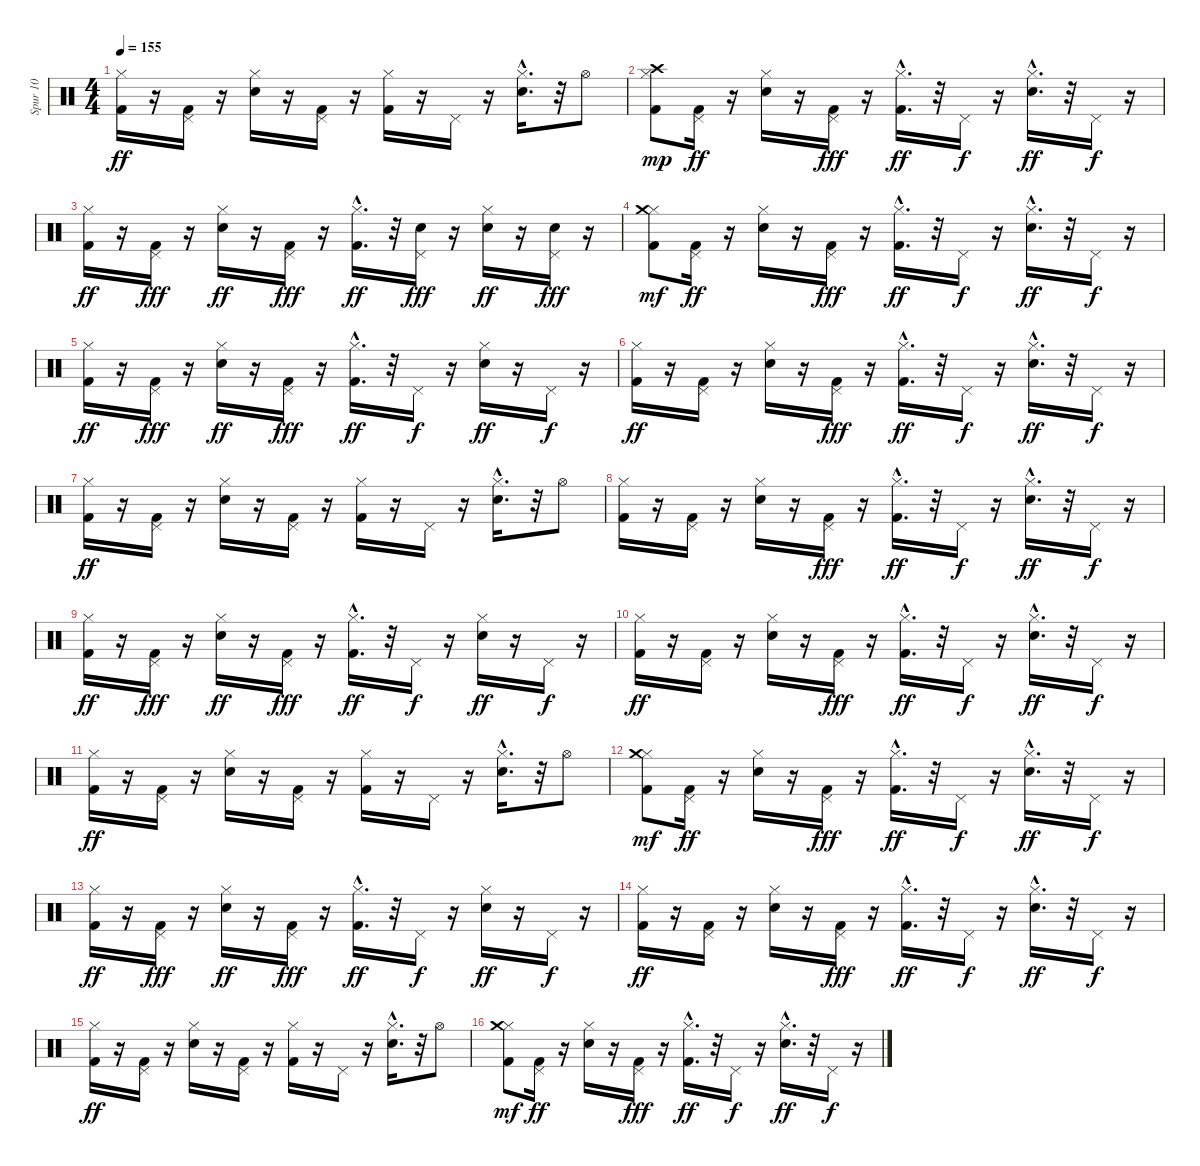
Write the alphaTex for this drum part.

\track ("Spur 10" "Spur 10") {instrument percussion}
\staff {score}
\articulation defaults
\ts (4 4)
\tempo 155
\clef neutral
\ks c
("Kick (hit) 2" "Hi-Hat (closed)").16{dy ff} r.16 ("Kick (hit) 2" "Pedal Hi-Hat (hit)").16 r.16 ("Snare (hit) 2" "Hi-Hat (closed)").16 r.16 ("Kick (hit) 2" "Pedal Hi-Hat (hit)").16 r.16 ("Kick (hit) 2" "Hi-Hat (closed)").16 r.16 "Pedal Hi-Hat (hit)".16 r.16 ("Snare (hit) 2"{hac} "Hi-Hat (closed)").16{d} r.32 "Hi-Hat (open)".8 |
("Kick (hit) 2" "Hi-Hat (closed)" "Crash high (hit)").8{dy mp} ("Kick (hit) 2" "Pedal Hi-Hat (hit)").16{dy ff} r.16 ("Snare (hit) 2" "Hi-Hat (closed)").16 r.16 ("Kick (hit) 2" "Pedal Hi-Hat (hit)").16{dy fff} r.16 ("Kick (hit) 2"{hac} "Hi-Hat (closed)").16{d dy ff} r.32 "Pedal Hi-Hat (hit)".16{dy f} r.16 ("Snare (hit) 2"{hac} "Hi-Hat (closed)").16{d dy ff} r.32 "Pedal Hi-Hat (hit)".16{dy f} r.16 |
("Kick (hit) 2" "Hi-Hat (closed)").16{dy ff} r.16 ("Kick (hit) 2" "Pedal Hi-Hat (hit)").16{dy fff} r.16 ("Snare (hit) 2" "Hi-Hat (closed)").16{dy ff} r.16 ("Kick (hit) 2" "Pedal Hi-Hat (hit)").16{dy fff} r.16 ("Kick (hit) 2"{hac} "Hi-Hat (closed)").16{d dy ff} r.32 ("Pedal Hi-Hat (hit)" "Snare (hit) 2").16{dy fff} r.16 ("Snare (hit) 2" "Hi-Hat (closed)").16{dy ff} r.16 ("Pedal Hi-Hat (hit)" "Snare (hit) 2").16{dy fff} r.16 |
("Kick (hit) 2" "Hi-Hat (closed)" "Crash medium (hit)").8{dy mf} ("Kick (hit) 2" "Pedal Hi-Hat (hit)").16{dy ff} r.16 ("Snare (hit) 2" "Hi-Hat (closed)").16 r.16 ("Kick (hit) 2" "Pedal Hi-Hat (hit)").16{dy fff} r.16 ("Kick (hit) 2"{hac} "Hi-Hat (closed)").16{d dy ff} r.32 "Pedal Hi-Hat (hit)".16{dy f} r.16 ("Snare (hit) 2"{hac} "Hi-Hat (closed)").16{d dy ff} r.32 "Pedal Hi-Hat (hit)".16{dy f} r.16 |
("Kick (hit) 2" "Hi-Hat (closed)").16{dy ff} r.16 ("Kick (hit) 2" "Pedal Hi-Hat (hit)").16{dy fff} r.16 ("Snare (hit) 2" "Hi-Hat (closed)").16{dy ff} r.16 ("Kick (hit) 2" "Pedal Hi-Hat (hit)").16{dy fff} r.16 ("Kick (hit) 2"{hac} "Hi-Hat (closed)").16{d dy ff} r.32 "Pedal Hi-Hat (hit)".16{dy f} r.16 ("Snare (hit) 2" "Hi-Hat (closed)").16{dy ff} r.16 "Pedal Hi-Hat (hit)".16{dy f} r.16 |
("Kick (hit) 2" "Hi-Hat (closed)").16{dy ff} r.16 ("Kick (hit) 2" "Pedal Hi-Hat (hit)").16 r.16 ("Snare (hit) 2" "Hi-Hat (closed)").16 r.16 ("Kick (hit) 2" "Pedal Hi-Hat (hit)").16{dy fff} r.16 ("Kick (hit) 2"{hac} "Hi-Hat (closed)").16{d dy ff} r.32 "Pedal Hi-Hat (hit)".16{dy f} r.16 ("Snare (hit) 2"{hac} "Hi-Hat (closed)").16{d dy ff} r.32 "Pedal Hi-Hat (hit)".16{dy f} r.16 |
("Kick (hit) 2" "Hi-Hat (closed)").16{dy ff} r.16 ("Kick (hit) 2" "Pedal Hi-Hat (hit)").16 r.16 ("Snare (hit) 2" "Hi-Hat (closed)").16 r.16 ("Kick (hit) 2" "Pedal Hi-Hat (hit)").16 r.16 ("Kick (hit) 2" "Hi-Hat (closed)").16 r.16 "Pedal Hi-Hat (hit)".16 r.16 ("Snare (hit) 2"{hac} "Hi-Hat (closed)").16{d} r.32 "Hi-Hat (open)".8 |
("Kick (hit) 2" "Hi-Hat (closed)").16 r.16 ("Kick (hit) 2" "Pedal Hi-Hat (hit)").16 r.16 ("Snare (hit) 2" "Hi-Hat (closed)").16 r.16 ("Kick (hit) 2" "Pedal Hi-Hat (hit)").16{dy fff} r.16 ("Kick (hit) 2"{hac} "Hi-Hat (closed)").16{d dy ff} r.32 "Pedal Hi-Hat (hit)".16{dy f} r.16 ("Snare (hit) 2"{hac} "Hi-Hat (closed)").16{d dy ff} r.32 "Pedal Hi-Hat (hit)".16{dy f} r.16 |
("Kick (hit) 2" "Hi-Hat (closed)").16{dy ff} r.16 ("Kick (hit) 2" "Pedal Hi-Hat (hit)").16{dy fff} r.16 ("Snare (hit) 2" "Hi-Hat (closed)").16{dy ff} r.16 ("Kick (hit) 2" "Pedal Hi-Hat (hit)").16{dy fff} r.16 ("Kick (hit) 2"{hac} "Hi-Hat (closed)").16{d dy ff} r.32 "Pedal Hi-Hat (hit)".16{dy f} r.16 ("Snare (hit) 2" "Hi-Hat (closed)").16{dy ff} r.16 "Pedal Hi-Hat (hit)".16{dy f} r.16 |
("Kick (hit) 2" "Hi-Hat (closed)").16{dy ff} r.16 ("Kick (hit) 2" "Pedal Hi-Hat (hit)").16 r.16 ("Snare (hit) 2" "Hi-Hat (closed)").16 r.16 ("Kick (hit) 2" "Pedal Hi-Hat (hit)").16{dy fff} r.16 ("Kick (hit) 2"{hac} "Hi-Hat (closed)").16{d dy ff} r.32 "Pedal Hi-Hat (hit)".16{dy f} r.16 ("Snare (hit) 2"{hac} "Hi-Hat (closed)").16{d dy ff} r.32 "Pedal Hi-Hat (hit)".16{dy f} r.16 |
("Kick (hit) 2" "Hi-Hat (closed)").16{dy ff} r.16 ("Kick (hit) 2" "Pedal Hi-Hat (hit)").16 r.16 ("Snare (hit) 2" "Hi-Hat (closed)").16 r.16 ("Kick (hit) 2" "Pedal Hi-Hat (hit)").16 r.16 ("Kick (hit) 2" "Hi-Hat (closed)").16 r.16 "Pedal Hi-Hat (hit)".16 r.16 ("Snare (hit) 2"{hac} "Hi-Hat (closed)").16{d} r.32 "Hi-Hat (open)".8 |
("Kick (hit) 2" "Hi-Hat (closed)" "Crash medium (hit)").8{dy mf} ("Kick (hit) 2" "Pedal Hi-Hat (hit)").16{dy ff} r.16 ("Snare (hit) 2" "Hi-Hat (closed)").16 r.16 ("Kick (hit) 2" "Pedal Hi-Hat (hit)").16{dy fff} r.16 ("Kick (hit) 2"{hac} "Hi-Hat (closed)").16{d dy ff} r.32 "Pedal Hi-Hat (hit)".16{dy f} r.16 ("Snare (hit) 2"{hac} "Hi-Hat (closed)").16{d dy ff} r.32 "Pedal Hi-Hat (hit)".16{dy f} r.16 |
("Kick (hit) 2" "Hi-Hat (closed)").16{dy ff} r.16 ("Kick (hit) 2" "Pedal Hi-Hat (hit)").16{dy fff} r.16 ("Snare (hit) 2" "Hi-Hat (closed)").16{dy ff} r.16 ("Kick (hit) 2" "Pedal Hi-Hat (hit)").16{dy fff} r.16 ("Kick (hit) 2"{hac} "Hi-Hat (closed)").16{d dy ff} r.32 "Pedal Hi-Hat (hit)".16{dy f} r.16 ("Snare (hit) 2" "Hi-Hat (closed)").16{dy ff} r.16 "Pedal Hi-Hat (hit)".16{dy f} r.16 |
("Kick (hit) 2" "Hi-Hat (closed)").16{dy ff} r.16 ("Kick (hit) 2" "Pedal Hi-Hat (hit)").16 r.16 ("Snare (hit) 2" "Hi-Hat (closed)").16 r.16 ("Kick (hit) 2" "Pedal Hi-Hat (hit)").16{dy fff} r.16 ("Kick (hit) 2"{hac} "Hi-Hat (closed)").16{d dy ff} r.32 "Pedal Hi-Hat (hit)".16{dy f} r.16 ("Snare (hit) 2"{hac} "Hi-Hat (closed)").16{d dy ff} r.32 "Pedal Hi-Hat (hit)".16{dy f} r.16 |
("Kick (hit) 2" "Hi-Hat (closed)").16{dy ff} r.16 ("Kick (hit) 2" "Pedal Hi-Hat (hit)").16 r.16 ("Snare (hit) 2" "Hi-Hat (closed)").16 r.16 ("Kick (hit) 2" "Pedal Hi-Hat (hit)").16 r.16 ("Kick (hit) 2" "Hi-Hat (closed)").16 r.16 "Pedal Hi-Hat (hit)".16 r.16 ("Snare (hit) 2"{hac} "Hi-Hat (closed)").16{d} r.32 "Hi-Hat (open)".8 |
("Kick (hit) 2" "Hi-Hat (closed)" "Crash medium (hit)").8{dy mf} ("Kick (hit) 2" "Pedal Hi-Hat (hit)").16{dy ff} r.16 ("Snare (hit) 2" "Hi-Hat (closed)").16 r.16 ("Kick (hit) 2" "Pedal Hi-Hat (hit)").16{dy fff} r.16 ("Kick (hit) 2"{hac} "Hi-Hat (closed)").16{d dy ff} r.32 "Pedal Hi-Hat (hit)".16{dy f} r.16 ("Snare (hit) 2"{hac} "Hi-Hat (closed)").16{d dy ff} r.32 "Pedal Hi-Hat (hit)".16{dy f} r.16
